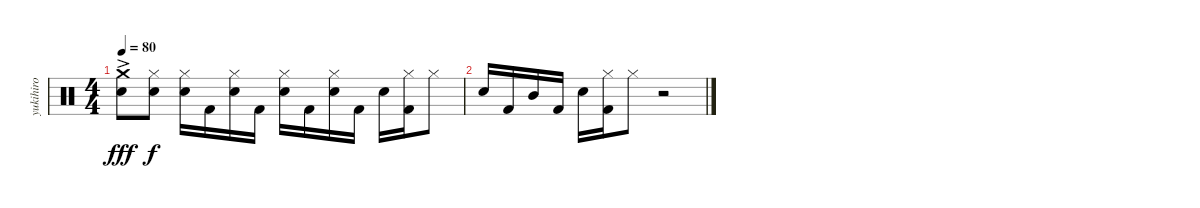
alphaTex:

\track ("yukihiro" "yukihiro") {instrument percussion}
\staff {score}
\articulation defaults
\ts (4 4)
\tempo 80
\clef neutral
\ks c
("Crash medium (hit)"{ac} "Snare (hit) 2").8{dy fff} ("Hi-Hat (closed)" "Snare (hit) 2").8{dy f} ("Hi-Hat (closed)" "Snare (hit) 2").16 "Kick (hit) 2".16 ("Hi-Hat (closed)" "Snare (hit) 2").16 "Kick (hit) 2".16 ("Hi-Hat (closed)" "Snare (hit) 2").16 "Kick (hit) 2".16 ("Hi-Hat (closed)" "Snare (hit) 2").16 "Kick (hit) 2".16 "Snare (hit) 2".16 ("Hi-Hat (closed)" "Kick (hit) 2").16 "Hi-Hat (closed)".8 |
"Snare (hit) 2".16 "Kick (hit) 2".16 "Mid Tom (hit)".16 "Kick (hit) 2".16 "Snare (hit) 2".16 ("Hi-Hat (closed)" "Kick (hit) 2").16 "Hi-Hat (closed)".8 r.2
